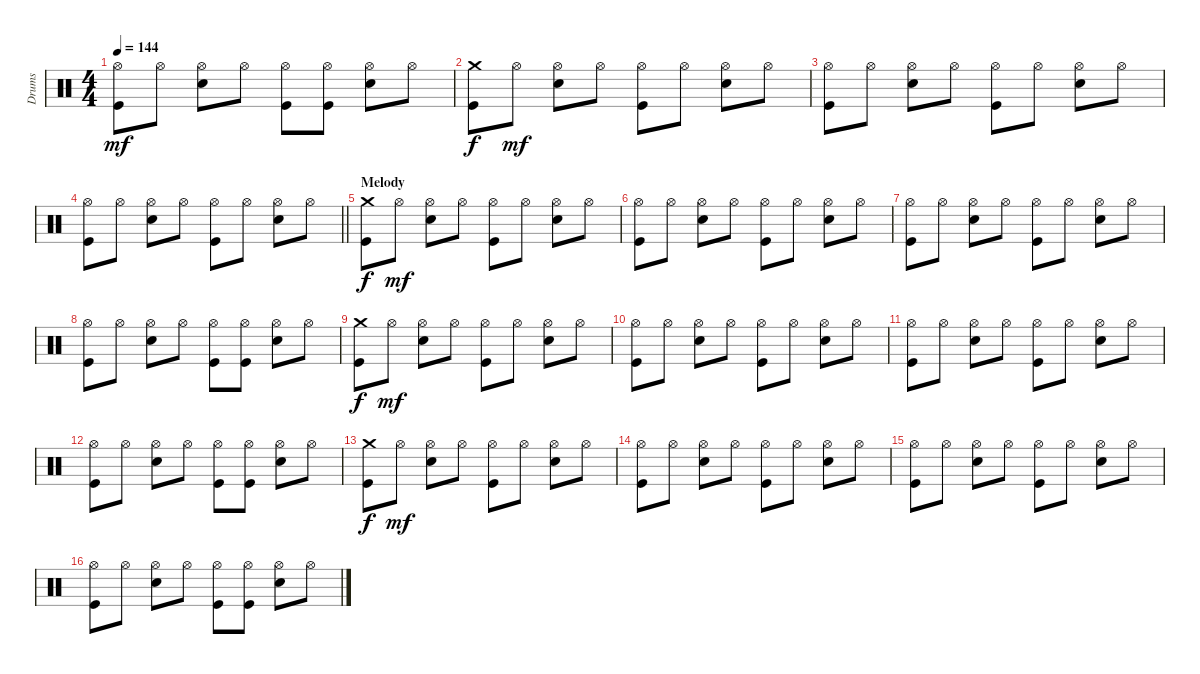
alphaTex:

\track ("Drums" "Drums") {instrument percussion}
\staff {score}
\articulation defaults
\ts (4 4)
\tempo 144
\clef neutral
\ks c
("Hi-Hat (open)" "Kick (hit)").8{dy mf} "Hi-Hat (open)".8 ("Hi-Hat (open)" "Snare (hit) 2").8 "Hi-Hat (open)".8 ("Hi-Hat (open)" "Kick (hit)").8 ("Hi-Hat (open)" "Kick (hit)").8 ("Hi-Hat (open)" "Snare (hit) 2").8 "Hi-Hat (open)".8 |
("Crash medium (hit)" "Kick (hit)").8{dy f} "Hi-Hat (open)".8{dy mf} ("Hi-Hat (open)" "Snare (hit) 2").8 "Hi-Hat (open)".8 ("Hi-Hat (open)" "Kick (hit)").8 "Hi-Hat (open)".8 ("Hi-Hat (open)" "Snare (hit) 2").8 "Hi-Hat (open)".8 |
("Hi-Hat (open)" "Kick (hit)").8 "Hi-Hat (open)".8 ("Hi-Hat (open)" "Snare (hit) 2").8 "Hi-Hat (open)".8 ("Hi-Hat (open)" "Kick (hit)").8 "Hi-Hat (open)".8 ("Hi-Hat (open)" "Snare (hit) 2").8 "Hi-Hat (open)".8 |
\barLineRight lightlight
("Hi-Hat (open)" "Kick (hit)").8 "Hi-Hat (open)".8 ("Hi-Hat (open)" "Snare (hit) 2").8 "Hi-Hat (open)".8 ("Hi-Hat (open)" "Kick (hit)").8 "Hi-Hat (open)".8 ("Hi-Hat (open)" "Snare (hit) 2").8 "Hi-Hat (open)".8 |
\section ("" "Melody")
("Crash medium (hit)" "Kick (hit)").8{dy f} "Hi-Hat (open)".8{dy mf} ("Hi-Hat (open)" "Snare (hit) 2").8 "Hi-Hat (open)".8 ("Hi-Hat (open)" "Kick (hit)").8 "Hi-Hat (open)".8 ("Hi-Hat (open)" "Snare (hit) 2").8 "Hi-Hat (open)".8 |
("Hi-Hat (open)" "Kick (hit)").8 "Hi-Hat (open)".8 ("Hi-Hat (open)" "Snare (hit) 2").8 "Hi-Hat (open)".8 ("Hi-Hat (open)" "Kick (hit)").8 "Hi-Hat (open)".8 ("Hi-Hat (open)" "Snare (hit) 2").8 "Hi-Hat (open)".8 |
("Hi-Hat (open)" "Kick (hit)").8 "Hi-Hat (open)".8 ("Hi-Hat (open)" "Snare (hit) 2").8 "Hi-Hat (open)".8 ("Hi-Hat (open)" "Kick (hit)").8 "Hi-Hat (open)".8 ("Hi-Hat (open)" "Snare (hit) 2").8 "Hi-Hat (open)".8 |
("Hi-Hat (open)" "Kick (hit)").8 "Hi-Hat (open)".8 ("Hi-Hat (open)" "Snare (hit) 2").8 "Hi-Hat (open)".8 ("Hi-Hat (open)" "Kick (hit)").8 ("Hi-Hat (open)" "Kick (hit)").8 ("Hi-Hat (open)" "Snare (hit) 2").8 "Hi-Hat (open)".8 |
("Crash medium (hit)" "Kick (hit)").8{dy f} "Hi-Hat (open)".8{dy mf} ("Hi-Hat (open)" "Snare (hit) 2").8 "Hi-Hat (open)".8 ("Hi-Hat (open)" "Kick (hit)").8 "Hi-Hat (open)".8 ("Hi-Hat (open)" "Snare (hit) 2").8 "Hi-Hat (open)".8 |
("Hi-Hat (open)" "Kick (hit)").8 "Hi-Hat (open)".8 ("Hi-Hat (open)" "Snare (hit) 2").8 "Hi-Hat (open)".8 ("Hi-Hat (open)" "Kick (hit)").8 "Hi-Hat (open)".8 ("Hi-Hat (open)" "Snare (hit) 2").8 "Hi-Hat (open)".8 |
("Hi-Hat (open)" "Kick (hit)").8 "Hi-Hat (open)".8 ("Hi-Hat (open)" "Snare (hit) 2").8 "Hi-Hat (open)".8 ("Hi-Hat (open)" "Kick (hit)").8 "Hi-Hat (open)".8 ("Hi-Hat (open)" "Snare (hit) 2").8 "Hi-Hat (open)".8 |
("Hi-Hat (open)" "Kick (hit)").8 "Hi-Hat (open)".8 ("Hi-Hat (open)" "Snare (hit) 2").8 "Hi-Hat (open)".8 ("Hi-Hat (open)" "Kick (hit)").8 ("Hi-Hat (open)" "Kick (hit)").8 ("Hi-Hat (open)" "Snare (hit) 2").8 "Hi-Hat (open)".8 |
("Crash medium (hit)" "Kick (hit)").8{dy f} "Hi-Hat (open)".8{dy mf} ("Hi-Hat (open)" "Snare (hit) 2").8 "Hi-Hat (open)".8 ("Hi-Hat (open)" "Kick (hit)").8 "Hi-Hat (open)".8 ("Hi-Hat (open)" "Snare (hit) 2").8 "Hi-Hat (open)".8 |
("Hi-Hat (open)" "Kick (hit)").8 "Hi-Hat (open)".8 ("Hi-Hat (open)" "Snare (hit) 2").8 "Hi-Hat (open)".8 ("Hi-Hat (open)" "Kick (hit)").8 "Hi-Hat (open)".8 ("Hi-Hat (open)" "Snare (hit) 2").8 "Hi-Hat (open)".8 |
("Hi-Hat (open)" "Kick (hit)").8 "Hi-Hat (open)".8 ("Hi-Hat (open)" "Snare (hit) 2").8 "Hi-Hat (open)".8 ("Hi-Hat (open)" "Kick (hit)").8 "Hi-Hat (open)".8 ("Hi-Hat (open)" "Snare (hit) 2").8 "Hi-Hat (open)".8 |
("Hi-Hat (open)" "Kick (hit)").8 "Hi-Hat (open)".8 ("Hi-Hat (open)" "Snare (hit) 2").8 "Hi-Hat (open)".8 ("Hi-Hat (open)" "Kick (hit)").8 ("Hi-Hat (open)" "Kick (hit)").8 ("Hi-Hat (open)" "Snare (hit) 2").8 "Hi-Hat (open)".8
